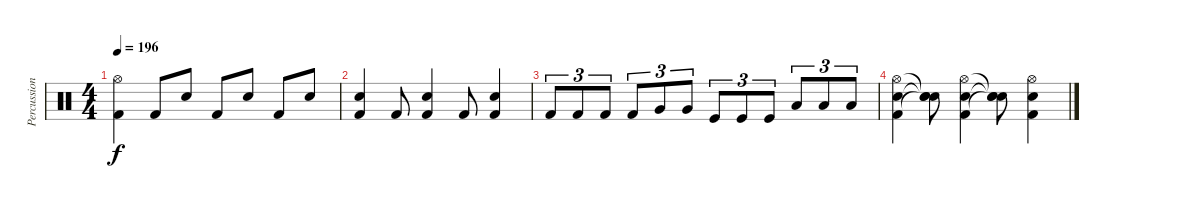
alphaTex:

\track ("Percussion" "Percussion") {instrument percussion}
\staff {score}
\articulation defaults
\ts (4 4)
\tempo 196
\clef neutral
\ks c
("Hi-Hat (open)" "Kick (hit) 2").4{dy f} "Kick (hit) 2".8 "Electric Snare (hit)".8 "Kick (hit) 2".8 "Electric Snare (hit)".8 "Kick (hit) 2".8 "Electric Snare (hit)".8 |
("Electric Snare (hit)" "Kick (hit) 2").4 "Kick (hit) 2".8 ("Electric Snare (hit)" "Kick (hit) 2").4 "Kick (hit) 2".8 ("Electric Snare (hit)" "Kick (hit) 2").4 |
"Kick (hit) 2".8{tu (3 2)} "Kick (hit) 2".8{tu (3 2)} "Kick (hit) 2".8{tu (3 2)} "Kick (hit) 2".8{tu (3 2)} "Very Low Tom (hit)".8{tu (3 2)} "Very Low Tom (hit)".8{tu (3 2)} "Kick (hit)".8{tu (3 2)} "Kick (hit)".8{tu (3 2)} "Kick (hit)".8{tu (3 2)} "Low Floor Tom (hit)".8{tu (3 2)} "Low Floor Tom (hit)".8{tu (3 2)} "Low Floor Tom (hit)".8{tu (3 2)} |
("Hi-Hat (open)" "Electric Snare (hit)" "Kick (hit) 2").4 ("Snare (hit)"{t} "Snare (hit)"{t} "Snare (hit)"{t}).8 ("Hi-Hat (open)" "Electric Snare (hit)" "Kick (hit) 2").4 ("Snare (hit)"{t} "Snare (hit)"{t} "Snare (hit)"{t}).8 ("Hi-Hat (open)" "Electric Snare (hit)" "Kick (hit) 2").4
